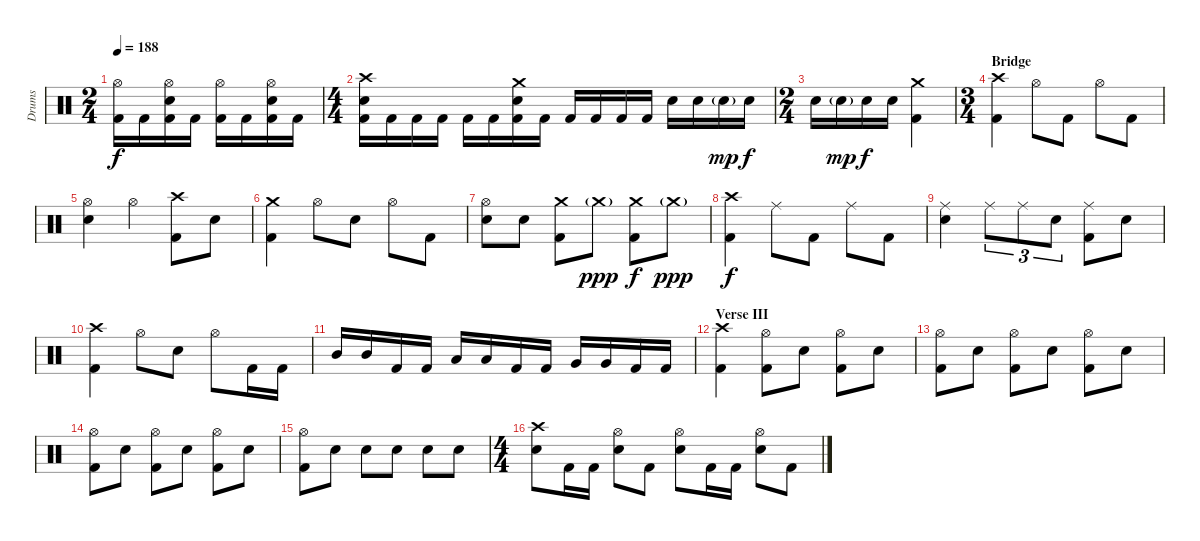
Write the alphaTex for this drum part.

\track ("Drums" "Drums") {instrument percussion}
\staff {score}
\articulation defaults
\ts (2 4)
\tempo 188
\clef neutral
\ks c
("Hi-Hat (open)" "Kick (hit) 2").16{dy f} "Kick (hit) 2".16 ("Hi-Hat (open)" "Electric Snare (hit)" "Kick (hit) 2").16 "Kick (hit) 2".16 ("Hi-Hat (open)" "Kick (hit) 2").16 "Kick (hit) 2".16 ("Hi-Hat (open)" "Electric Snare (hit)" "Kick (hit) 2").16 "Kick (hit) 2".16 |
\ts (4 4)
("Crash high (hit)" "Electric Snare (hit)" "Kick (hit) 2").16 "Kick (hit) 2".16 "Kick (hit) 2".16 "Kick (hit) 2".16 "Kick (hit) 2".16 "Kick (hit) 2".16 ("Crash medium (hit)" "Electric Snare (hit)" "Kick (hit) 2").16 "Kick (hit) 2".16 "Kick (hit) 2".16 "Kick (hit) 2".16 "Kick (hit) 2".16 "Kick (hit) 2".16 "Electric Snare (hit)".16 "Electric Snare (hit)".16 "Electric Snare (hit)"{g}.16{dy mp} "Electric Snare (hit)".16{dy f} |
\ts (2 4)
"Electric Snare (hit)".16 "Electric Snare (hit)"{g}.16{dy mp} "Electric Snare (hit)".16{dy f} "Electric Snare (hit)".16 ("Crash medium (hit)" "Kick (hit) 2").4 |
\ts (3 4)
\section ("" "Bridge")
("Crash high (hit)" "Kick (hit) 2").4 "Hi-Hat (open)".8 "Kick (hit) 2".8 "Hi-Hat (open)".8 "Kick (hit) 2".8 |
("Hi-Hat (open)" "Electric Snare (hit)").4 "Hi-Hat (open)".4 ("Crash high (hit)" "Kick (hit) 2").8 "Electric Snare (hit)".8 |
("Crash medium (hit)" "Kick (hit) 2").4 "Hi-Hat (open)".8 "Electric Snare (hit)".8 "Hi-Hat (open)".8 "Kick (hit) 2".8 |
("Hi-Hat (open)" "Electric Snare (hit)").8 "Electric Snare (hit)".8 ("Crash medium (hit)" "Kick (hit) 2").8 "Crash medium (hit)"{g}.8{dy ppp} ("Crash medium (hit)" "Kick (hit) 2").8{dy f} "Crash medium (hit)"{g}.8{dy ppp} |
("Crash high (hit)" "Kick (hit) 2").4{dy f} "Ride (middle)".8 "Kick (hit) 2".8 "Ride (middle)".8 "Kick (hit) 2".8 |
("Ride (middle)" "Electric Snare (hit)").4 "Ride (middle)".8{tu (3 2)} "Ride (middle)".8{tu (3 2)} "Electric Snare (hit)".8{tu (3 2)} ("Ride (middle)" "Kick (hit) 2").8 "Electric Snare (hit)".8 |
("Crash high (hit)" "Kick (hit) 2").4 "Hi-Hat (open)".8 "Electric Snare (hit)".8 "Hi-Hat (open)".8 "Kick (hit) 2".16 "Kick (hit) 2".16 |
"Mid Tom (hit)".16 "Mid Tom (hit)".16 "Kick (hit) 2".16 "Kick (hit) 2".16 "Low Tom (hit)".16 "Low Tom (hit)".16 "Kick (hit) 2".16 "Kick (hit) 2".16 "Very Low Tom (hit)".16 "Very Low Tom (hit)".16 "Kick (hit) 2".16 "Kick (hit) 2".16 |
\section ("" "Verse III")
("Crash high (hit)" "Kick (hit) 2").4 ("Hi-Hat (open)" "Kick (hit) 2").8 "Electric Snare (hit)".8 ("Hi-Hat (open)" "Kick (hit) 2").8 "Electric Snare (hit)".8 |
("Hi-Hat (open)" "Kick (hit) 2").8 "Electric Snare (hit)".8 ("Hi-Hat (open)" "Kick (hit) 2").8 "Electric Snare (hit)".8 ("Hi-Hat (open)" "Kick (hit) 2").8 "Electric Snare (hit)".8 |
("Hi-Hat (open)" "Kick (hit) 2").8 "Electric Snare (hit)".8 ("Hi-Hat (open)" "Kick (hit) 2").8 "Electric Snare (hit)".8 ("Hi-Hat (open)" "Kick (hit) 2").8 "Electric Snare (hit)".8 |
("Hi-Hat (open)" "Kick (hit) 2").8 "Electric Snare (hit)".8 "Electric Snare (hit)".8 "Electric Snare (hit)".8 "Electric Snare (hit)".8 "Electric Snare (hit)".8 |
\ts (4 4)
("Crash high (hit)" "Electric Snare (hit)").8 "Kick (hit) 2".16 "Kick (hit) 2".16 ("Hi-Hat (open)" "Electric Snare (hit)").8 "Kick (hit) 2".8 ("Hi-Hat (open)" "Electric Snare (hit)").8 "Kick (hit) 2".16 "Kick (hit) 2".16 ("Hi-Hat (open)" "Electric Snare (hit)").8 "Kick (hit) 2".8
